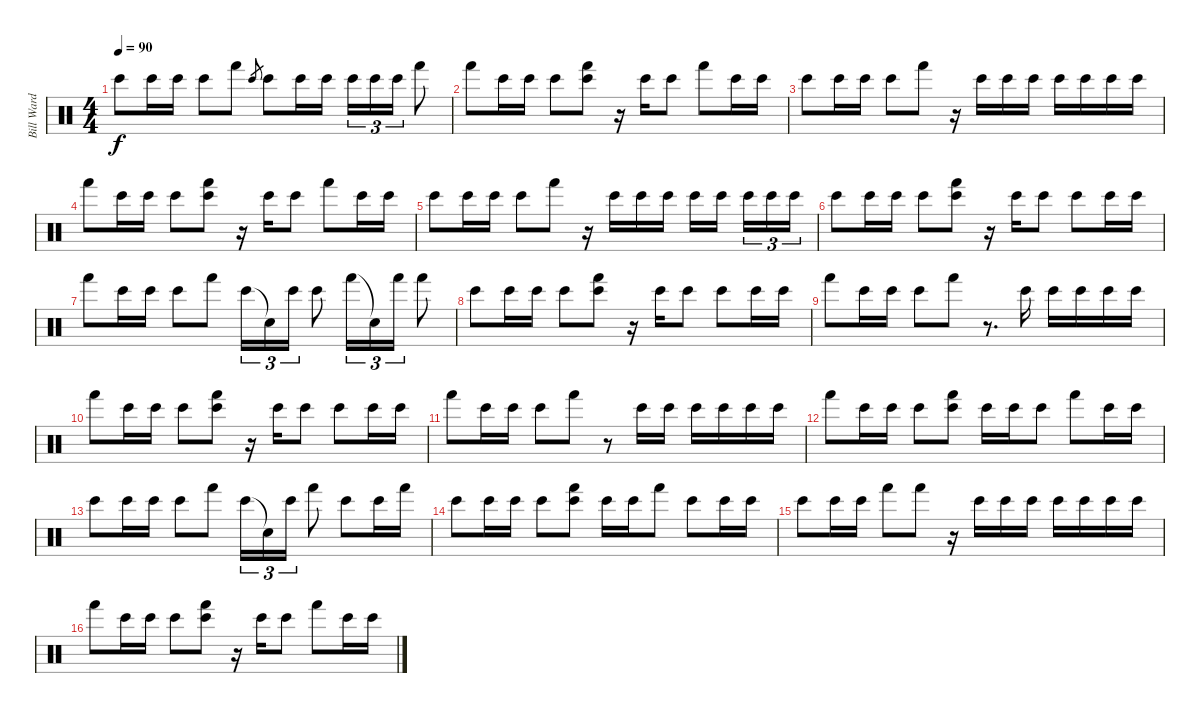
\track ("Bill Ward" "Bill Ward") {instrument percussion}
\staff {score}
\articulation defaults
\ts (4 4)
\tempo 90
\clef neutral
\ks c "Bongo High (hit)".8{dy f} "Bongo High (hit)".16 "Bongo High (hit)".16 "Bongo High (hit)".8 "Hand (hit)".8 "Bongo High (hit)".8{gr} "Bongo High (hit)".8 "Bongo High (hit)".16 "Bongo High (hit)".16 "Bongo High (hit)".16{tu (3 2)} "Bongo High (hit)".16{tu (3 2)} "Bongo High (hit)".16{tu (3 2)} "Hand (hit)".8
|
"Hand (hit)".8 "Bongo High (hit)".16 "Bongo High (hit)".16 "Bongo High (hit)".8 ("Bongo High (hit)" "Hand (hit)").8 r.16 "Bongo High (hit)".16 "Bongo High (hit)".8 "Hand (hit)".8 "Bongo High (hit)".16 "Bongo High (hit)".16 |
"Bongo High (hit)".8 "Bongo High (hit)".16 "Bongo High (hit)".16 "Bongo High (hit)".8 "Hand (hit)".8 r.16 "Bongo High (hit)".16 "Bongo High (hit)".16 "Bongo High (hit)".16 "Bongo High (hit)".16 "Bongo High (hit)".16 "Bongo High (hit)".16 "Bongo High (hit)".16 |
"Hand (hit)".8 "Bongo High (hit)".16 "Bongo High (hit)".16 "Bongo High (hit)".8 ("Bongo High (hit)" "Hand (hit)").8 r.16 "Bongo High (hit)".16 "Bongo High (hit)".8 "Hand (hit)".8 "Bongo High (hit)".16 "Bongo High (hit)".16 |
"Bongo High (hit)".8 "Bongo High (hit)".16 "Bongo High (hit)".16 "Bongo High (hit)".8 "Hand (hit)".8 r.16 "Bongo High (hit)".16 "Bongo High (hit)".16 "Bongo High (hit)".16 "Bongo High (hit)".16 "Bongo High (hit)".16 "Bongo High (hit)".16{tu (3 2)} "Bongo High (hit)".16{tu (3 2)} "Bongo High (hit)".16{tu (3 2)} |
"Bongo High (hit)".8 "Bongo High (hit)".16 "Bongo High (hit)".16 "Bongo High (hit)".8 ("Bongo High (hit)" "Hand (hit)").8 r.16 "Bongo High (hit)".16 "Bongo High (hit)".8 "Bongo High (hit)".8 "Bongo High (hit)".16 "Bongo High (hit)".16 |
"Hand (hit)".8 "Bongo High (hit)".16 "Bongo High (hit)".16 "Bongo High (hit)".8 "Hand (hit)".8 "Bongo High (hit)".16{tu (3 2)} "Snare (hit)"{t}.16{tu (3 2)} "Bongo High (hit)".16{tu (3 2)} "Bongo High (hit)".8 "Hand (hit)".16{tu (3 2)} "Snare (hit)"{t}.16{tu (3 2)} "Hand (hit)".16{tu (3 2)} "Hand (hit)".8 |
"Bongo High (hit)".8 "Bongo High (hit)".16 "Bongo High (hit)".16 "Bongo High (hit)".8 ("Bongo High (hit)" "Hand (hit)").8 r.16 "Bongo High (hit)".16 "Bongo High (hit)".8 "Bongo High (hit)".8 "Bongo High (hit)".16 "Bongo High (hit)".16 |
"Hand (hit)".8 "Bongo High (hit)".16 "Bongo High (hit)".16 "Bongo High (hit)".8 "Hand (hit)".8 r.8{d} "Bongo High (hit)".16 "Bongo High (hit)".16 "Bongo High (hit)".16 "Bongo High (hit)".16 "Bongo High (hit)".16 |
"Hand (hit)".8 "Bongo High (hit)".16 "Bongo High (hit)".16 "Bongo High (hit)".8 ("Bongo High (hit)" "Hand (hit)").8 r.16 "Bongo High (hit)".16 "Bongo High (hit)".8 "Bongo High (hit)".8 "Bongo High (hit)".16 "Bongo High (hit)".16 |
"Hand (hit)".8 "Bongo High (hit)".16 "Bongo High (hit)".16 "Bongo High (hit)".8 "Hand (hit)".8 r.8 "Bongo High (hit)".16 "Bongo High (hit)".16 "Bongo High (hit)".16 "Bongo High (hit)".16 "Bongo High (hit)".16 "Bongo High (hit)".16 |
"Hand (hit)".8 "Bongo High (hit)".16 "Bongo High (hit)".16 "Bongo High (hit)".8 ("Bongo High (hit)" "Hand (hit)").8 "Bongo High (hit)".16 "Bongo High (hit)".16 "Bongo High (hit)".8 "Hand (hit)".8 "Bongo High (hit)".16 "Bongo High (hit)".16 |
"Bongo High (hit)".8 "Bongo High (hit)".16 "Bongo High (hit)".16 "Bongo High (hit)".8 "Hand (hit)".8 "Bongo High (hit)".16{tu (3 2)} "Snare (hit)"{t}.16{tu (3 2)} "Bongo High (hit)".16{tu (3 2)} "Hand (hit)".8 "Bongo High (hit)".8 "Bongo High (hit)".16 "Hand (hit)".16 |
"Bongo High (hit)".8 "Bongo High (hit)".16 "Bongo High (hit)".16 "Bongo High (hit)".8 ("Bongo High (hit)" "Hand (hit)").8 "Bongo High (hit)".16 "Bongo High (hit)".16 "Hand (hit)".8 "Bongo High (hit)".8 "Bongo High (hit)".16 "Bongo High (hit)".16 |
"Bongo High (hit)".8 "Bongo High (hit)".16 "Bongo High (hit)".16 "Hand (hit)".8 "Hand (hit)".8 r.16 "Bongo High (hit)".16 "Bongo High (hit)".16 "Bongo High (hit)".16 "Bongo High (hit)".16 "Bongo High (hit)".16 "Bongo High (hit)".16 "Bongo High (hit)".16 |
"Hand (hit)".8 "Bongo High (hit)".16 "Bongo High (hit)".16 "Bongo High (hit)".8 ("Bongo High (hit)" "Hand (hit)").8 r.16 "Bongo High (hit)".16 "Bongo High (hit)".8 "Hand (hit)".8 "Bongo High (hit)".16 "Bongo High (hit)".16
